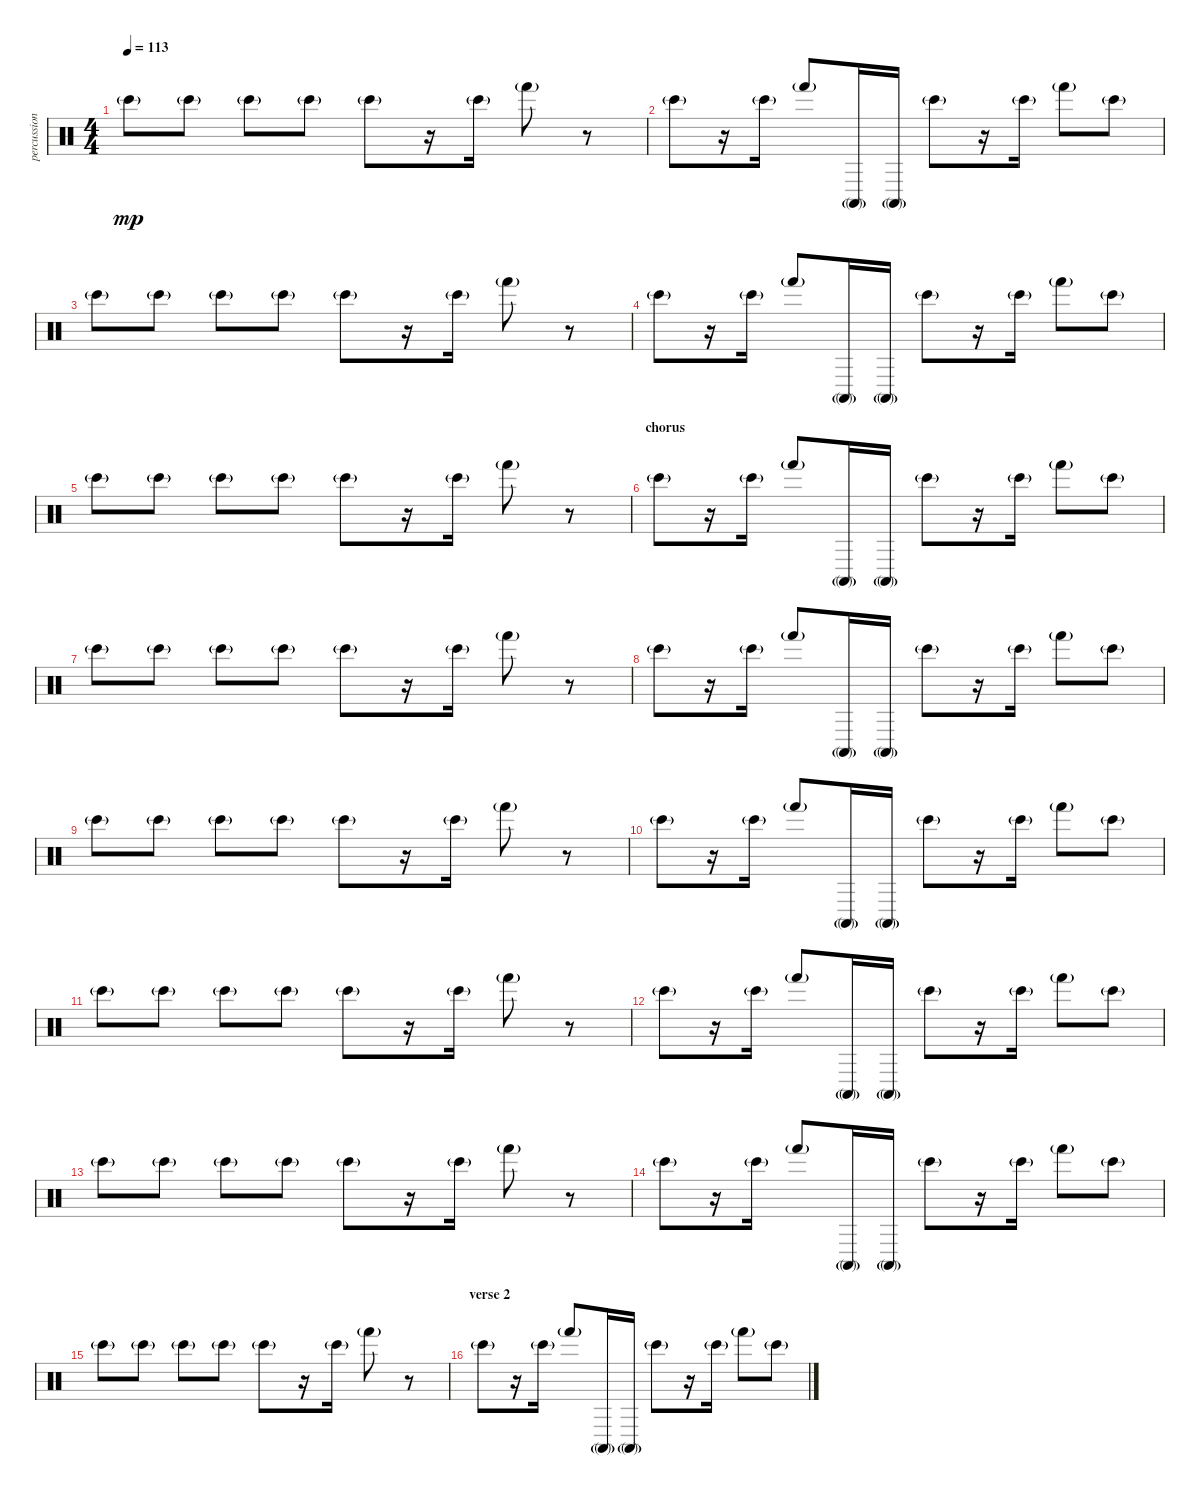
\track ("percussion" "percussion") {instrument percussion}
\staff {score}
\articulation defaults
\ts (4 4)
\tempo 113
\clef neutral
\ks c "Bongo High (hit)"{g}.8{dy mp} "Bongo High (hit)"{g}.8 "Bongo High (hit)"{g}.8 "Bongo High (hit)"{g}.8 "Bongo High (hit)"{g}.8
r.16 "Bongo High (hit)"{g}.16 "Hand (hit)"{g}.8 r.8 |
"Bongo High (hit)"{g}.8 r.16 "Bongo High (hit)"{g}.16 "Hand (hit)"{g}.8 "Conga high (mute)"{g}.16 "Conga high (mute)"{g}.16 "Bongo High (hit)"{g}.8 r.16 "Bongo High (hit)"{g}.16 "Hand (hit)"{g}.8 "Bongo High (hit)"{g}.8 |
"Bongo High (hit)"{g}.8 "Bongo High (hit)"{g}.8 "Bongo High (hit)"{g}.8 "Bongo High (hit)"{g}.8 "Bongo High (hit)"{g}.8 r.16 "Bongo High (hit)"{g}.16 "Hand (hit)"{g}.8 r.8 |
"Bongo High (hit)"{g}.8 r.16 "Bongo High (hit)"{g}.16 "Hand (hit)"{g}.8 "Conga high (mute)"{g}.16 "Conga high (mute)"{g}.16 "Bongo High (hit)"{g}.8 r.16 "Bongo High (hit)"{g}.16 "Hand (hit)"{g}.8 "Bongo High (hit)"{g}.8 |
"Bongo High (hit)"{g}.8 "Bongo High (hit)"{g}.8 "Bongo High (hit)"{g}.8 "Bongo High (hit)"{g}.8 "Bongo High (hit)"{g}.8 r.16 "Bongo High (hit)"{g}.16 "Hand (hit)"{g}.8 r.8 |
\section ("" "chorus")
"Bongo High (hit)"{g}.8 r.16 "Bongo High (hit)"{g}.16 "Hand (hit)"{g}.8 "Conga high (mute)"{g}.16 "Conga high (mute)"{g}.16 "Bongo High (hit)"{g}.8 r.16 "Bongo High (hit)"{g}.16 "Hand (hit)"{g}.8 "Bongo High (hit)"{g}.8 |
"Bongo High (hit)"{g}.8 "Bongo High (hit)"{g}.8 "Bongo High (hit)"{g}.8 "Bongo High (hit)"{g}.8 "Bongo High (hit)"{g}.8 r.16 "Bongo High (hit)"{g}.16 "Hand (hit)"{g}.8 r.8 |
"Bongo High (hit)"{g}.8 r.16 "Bongo High (hit)"{g}.16 "Hand (hit)"{g}.8 "Conga high (mute)"{g}.16 "Conga high (mute)"{g}.16 "Bongo High (hit)"{g}.8 r.16 "Bongo High (hit)"{g}.16 "Hand (hit)"{g}.8 "Bongo High (hit)"{g}.8 |
"Bongo High (hit)"{g}.8 "Bongo High (hit)"{g}.8 "Bongo High (hit)"{g}.8 "Bongo High (hit)"{g}.8 "Bongo High (hit)"{g}.8 r.16 "Bongo High (hit)"{g}.16 "Hand (hit)"{g}.8 r.8 |
"Bongo High (hit)"{g}.8 r.16 "Bongo High (hit)"{g}.16 "Hand (hit)"{g}.8 "Conga high (mute)"{g}.16 "Conga high (mute)"{g}.16 "Bongo High (hit)"{g}.8 r.16 "Bongo High (hit)"{g}.16 "Hand (hit)"{g}.8 "Bongo High (hit)"{g}.8 |
"Bongo High (hit)"{g}.8 "Bongo High (hit)"{g}.8 "Bongo High (hit)"{g}.8 "Bongo High (hit)"{g}.8 "Bongo High (hit)"{g}.8 r.16 "Bongo High (hit)"{g}.16 "Hand (hit)"{g}.8 r.8 |
"Bongo High (hit)"{g}.8 r.16 "Bongo High (hit)"{g}.16 "Hand (hit)"{g}.8 "Conga high (mute)"{g}.16 "Conga high (mute)"{g}.16 "Bongo High (hit)"{g}.8 r.16 "Bongo High (hit)"{g}.16 "Hand (hit)"{g}.8 "Bongo High (hit)"{g}.8 |
"Bongo High (hit)"{g}.8 "Bongo High (hit)"{g}.8 "Bongo High (hit)"{g}.8 "Bongo High (hit)"{g}.8 "Bongo High (hit)"{g}.8 r.16 "Bongo High (hit)"{g}.16 "Hand (hit)"{g}.8 r.8 |
"Bongo High (hit)"{g}.8 r.16 "Bongo High (hit)"{g}.16 "Hand (hit)"{g}.8 "Conga high (mute)"{g}.16 "Conga high (mute)"{g}.16 "Bongo High (hit)"{g}.8 r.16 "Bongo High (hit)"{g}.16 "Hand (hit)"{g}.8 "Bongo High (hit)"{g}.8 |
"Bongo High (hit)"{g}.8 "Bongo High (hit)"{g}.8 "Bongo High (hit)"{g}.8 "Bongo High (hit)"{g}.8 "Bongo High (hit)"{g}.8 r.16 "Bongo High (hit)"{g}.16 "Hand (hit)"{g}.8 r.8 |
\section ("" "verse 2")
"Bongo High (hit)"{g}.8 r.16 "Bongo High (hit)"{g}.16 "Hand (hit)"{g}.8 "Conga high (mute)"{g}.16 "Conga high (mute)"{g}.16 "Bongo High (hit)"{g}.8 r.16 "Bongo High (hit)"{g}.16 "Hand (hit)"{g}.8 "Bongo High (hit)"{g}.8
